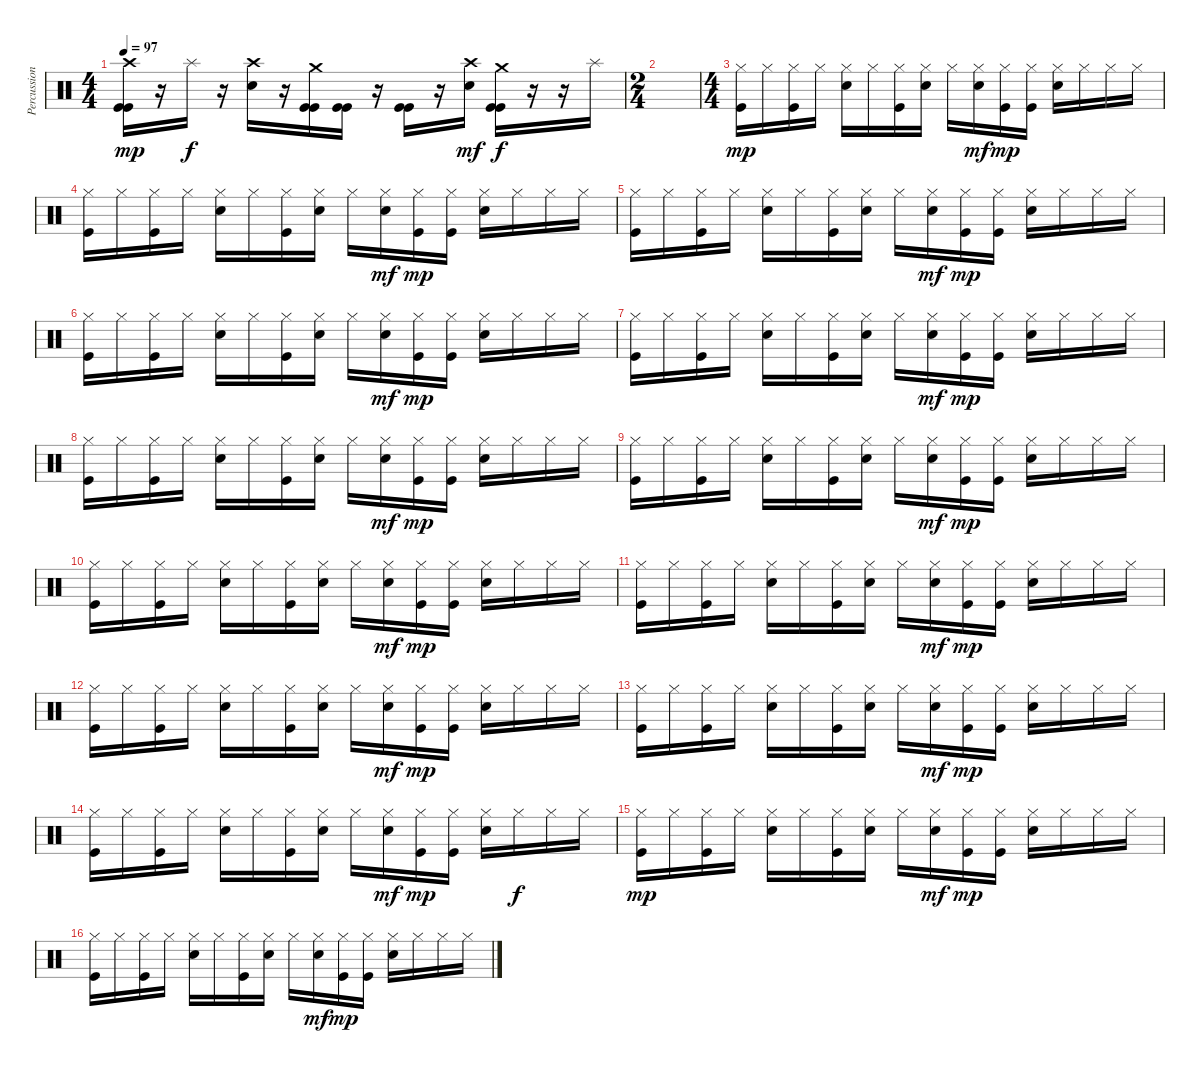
\track ("Percussions" "Percussion") {instrument percussion}
\staff {score}
\articulation defaults
\ts (4 4)
\tempo 97
\clef neutral
\ks c
("Crash high (hit)" "Kick (hit)" "Kick (hit)").16{dy mp} r.16 "Splash (hit)".16{dy f} r.16 ("Crash high (hit)" "Electric Snare (hit)").16 r.16 ("Crash medium (hit)" "Kick (hit)" "Kick (hit)").16 ("Kick (hit)" "Kick (hit)").16 r.16 ("Kick (hit)" "Kick (hit)").16 r.16 ("Crash high (hit)" "Electric Snare (hit)").16{dy mf} ("Crash medium (hit)" "Kick (hit)" "Kick (hit)").16{dy f} r.16 r.16 "Splash (hit)".16 |
\ts (2 4)
|
\ts (4 4)
("Hi-Hat (closed)" "Kick (hit)").16{dy mp} "Hi-Hat (closed)".16 ("Hi-Hat (closed)" "Kick (hit)").16 "Hi-Hat (closed)".16 ("Hi-Hat (closed)" "Electric Snare (hit)").16 "Hi-Hat (closed)".16 ("Hi-Hat (closed)" "Kick (hit)").16 ("Hi-Hat (closed)" "Electric Snare (hit)"{tr (40 64)}).16 "Hi-Hat (closed)".16 ("Hi-Hat (closed)" "Electric Snare (hit)").16{dy mf} ("Hi-Hat (closed)" "Kick (hit)").16{dy mp} ("Hi-Hat (closed)" "Kick (hit)").16 ("Hi-Hat (closed)" "Electric Snare (hit)").16 "Hi-Hat (closed)".16 "Hi-Hat (closed)".16 "Hi-Hat (closed)".16 |
("Hi-Hat (closed)" "Kick (hit)").16 "Hi-Hat (closed)".16 ("Hi-Hat (closed)" "Kick (hit)").16 "Hi-Hat (closed)".16 ("Hi-Hat (closed)" "Electric Snare (hit)").16 "Hi-Hat (closed)".16 ("Hi-Hat (closed)" "Kick (hit)").16 ("Hi-Hat (closed)" "Electric Snare (hit)"{tr (40 64)}).16 "Hi-Hat (closed)".16 ("Hi-Hat (closed)" "Electric Snare (hit)").16{dy mf} ("Hi-Hat (closed)" "Kick (hit)").16{dy mp} ("Hi-Hat (closed)" "Kick (hit)").16 ("Hi-Hat (closed)" "Electric Snare (hit)").16 "Hi-Hat (closed)".16 "Hi-Hat (closed)".16 "Hi-Hat (closed)".16 |
("Hi-Hat (closed)" "Kick (hit)").16 "Hi-Hat (closed)".16 ("Hi-Hat (closed)" "Kick (hit)").16 "Hi-Hat (closed)".16 ("Hi-Hat (closed)" "Electric Snare (hit)").16 "Hi-Hat (closed)".16 ("Hi-Hat (closed)" "Kick (hit)").16 ("Hi-Hat (closed)" "Electric Snare (hit)"{tr (40 64)}).16 "Hi-Hat (closed)".16 ("Hi-Hat (closed)" "Electric Snare (hit)").16{dy mf} ("Hi-Hat (closed)" "Kick (hit)").16{dy mp} ("Hi-Hat (closed)" "Kick (hit)").16 ("Hi-Hat (closed)" "Electric Snare (hit)").16 "Hi-Hat (closed)".16 "Hi-Hat (closed)".16 "Hi-Hat (closed)".16 |
("Hi-Hat (closed)" "Kick (hit)").16 "Hi-Hat (closed)".16 ("Hi-Hat (closed)" "Kick (hit)").16 "Hi-Hat (closed)".16 ("Hi-Hat (closed)" "Electric Snare (hit)").16 "Hi-Hat (closed)".16 ("Hi-Hat (closed)" "Kick (hit)").16 ("Hi-Hat (closed)" "Electric Snare (hit)"{tr (40 64)}).16 "Hi-Hat (closed)".16 ("Hi-Hat (closed)" "Electric Snare (hit)").16{dy mf} ("Hi-Hat (closed)" "Kick (hit)").16{dy mp} ("Hi-Hat (closed)" "Kick (hit)").16 ("Hi-Hat (closed)" "Electric Snare (hit)").16 "Hi-Hat (closed)".16 "Hi-Hat (closed)".16 "Hi-Hat (closed)".16 |
("Hi-Hat (closed)" "Kick (hit)").16 "Hi-Hat (closed)".16 ("Hi-Hat (closed)" "Kick (hit)").16 "Hi-Hat (closed)".16 ("Hi-Hat (closed)" "Electric Snare (hit)").16 "Hi-Hat (closed)".16 ("Hi-Hat (closed)" "Kick (hit)").16 ("Hi-Hat (closed)" "Electric Snare (hit)"{tr (40 64)}).16 "Hi-Hat (closed)".16 ("Hi-Hat (closed)" "Electric Snare (hit)").16{dy mf} ("Hi-Hat (closed)" "Kick (hit)").16{dy mp} ("Hi-Hat (closed)" "Kick (hit)").16 ("Hi-Hat (closed)" "Electric Snare (hit)").16 "Hi-Hat (closed)".16 "Hi-Hat (closed)".16 "Hi-Hat (closed)".16 |
("Hi-Hat (closed)" "Kick (hit)").16 "Hi-Hat (closed)".16 ("Hi-Hat (closed)" "Kick (hit)").16 "Hi-Hat (closed)".16 ("Hi-Hat (closed)" "Electric Snare (hit)").16 "Hi-Hat (closed)".16 ("Hi-Hat (closed)" "Kick (hit)").16 ("Hi-Hat (closed)" "Electric Snare (hit)"{tr (40 64)}).16 "Hi-Hat (closed)".16 ("Hi-Hat (closed)" "Electric Snare (hit)").16{dy mf} ("Hi-Hat (closed)" "Kick (hit)").16{dy mp} ("Hi-Hat (closed)" "Kick (hit)").16 ("Hi-Hat (closed)" "Electric Snare (hit)").16 "Hi-Hat (closed)".16 "Hi-Hat (closed)".16 "Hi-Hat (closed)".16 |
("Hi-Hat (closed)" "Kick (hit)").16 "Hi-Hat (closed)".16 ("Hi-Hat (closed)" "Kick (hit)").16 "Hi-Hat (closed)".16 ("Hi-Hat (closed)" "Electric Snare (hit)").16 "Hi-Hat (closed)".16 ("Hi-Hat (closed)" "Kick (hit)").16 ("Hi-Hat (closed)" "Electric Snare (hit)"{tr (40 64)}).16 "Hi-Hat (closed)".16 ("Hi-Hat (closed)" "Electric Snare (hit)").16{dy mf} ("Hi-Hat (closed)" "Kick (hit)").16{dy mp} ("Hi-Hat (closed)" "Kick (hit)").16 ("Hi-Hat (closed)" "Electric Snare (hit)").16 "Hi-Hat (closed)".16 "Hi-Hat (closed)".16 "Hi-Hat (closed)".16 |
("Hi-Hat (closed)" "Kick (hit)").16 "Hi-Hat (closed)".16 ("Hi-Hat (closed)" "Kick (hit)").16 "Hi-Hat (closed)".16 ("Hi-Hat (closed)" "Electric Snare (hit)").16 "Hi-Hat (closed)".16 ("Hi-Hat (closed)" "Kick (hit)").16 ("Hi-Hat (closed)" "Electric Snare (hit)"{tr (40 64)}).16 "Hi-Hat (closed)".16 ("Hi-Hat (closed)" "Electric Snare (hit)").16{dy mf} ("Hi-Hat (closed)" "Kick (hit)").16{dy mp} ("Hi-Hat (closed)" "Kick (hit)").16 ("Hi-Hat (closed)" "Electric Snare (hit)").16 "Hi-Hat (closed)".16 "Hi-Hat (closed)".16 "Hi-Hat (closed)".16 |
("Hi-Hat (closed)" "Kick (hit)").16 "Hi-Hat (closed)".16 ("Hi-Hat (closed)" "Kick (hit)").16 "Hi-Hat (closed)".16 ("Hi-Hat (closed)" "Electric Snare (hit)").16 "Hi-Hat (closed)".16 ("Hi-Hat (closed)" "Kick (hit)").16 ("Hi-Hat (closed)" "Electric Snare (hit)"{tr (40 64)}).16 "Hi-Hat (closed)".16 ("Hi-Hat (closed)" "Electric Snare (hit)").16{dy mf} ("Hi-Hat (closed)" "Kick (hit)").16{dy mp} ("Hi-Hat (closed)" "Kick (hit)").16 ("Hi-Hat (closed)" "Electric Snare (hit)").16 "Hi-Hat (closed)".16 "Hi-Hat (closed)".16 "Hi-Hat (closed)".16 |
("Hi-Hat (closed)" "Kick (hit)").16 "Hi-Hat (closed)".16 ("Hi-Hat (closed)" "Kick (hit)").16 "Hi-Hat (closed)".16 ("Hi-Hat (closed)" "Electric Snare (hit)").16 "Hi-Hat (closed)".16 ("Hi-Hat (closed)" "Kick (hit)").16 ("Hi-Hat (closed)" "Electric Snare (hit)"{tr (40 64)}).16 "Hi-Hat (closed)".16 ("Hi-Hat (closed)" "Electric Snare (hit)").16{dy mf} ("Hi-Hat (closed)" "Kick (hit)").16{dy mp} ("Hi-Hat (closed)" "Kick (hit)").16 ("Hi-Hat (closed)" "Electric Snare (hit)").16 "Hi-Hat (closed)".16 "Hi-Hat (closed)".16 "Hi-Hat (closed)".16 |
("Hi-Hat (closed)" "Kick (hit)").16 "Hi-Hat (closed)".16 ("Hi-Hat (closed)" "Kick (hit)").16 "Hi-Hat (closed)".16 ("Hi-Hat (closed)" "Electric Snare (hit)").16 "Hi-Hat (closed)".16 ("Hi-Hat (closed)" "Kick (hit)").16 ("Hi-Hat (closed)" "Electric Snare (hit)"{tr (40 64)}).16 "Hi-Hat (closed)".16 ("Hi-Hat (closed)" "Electric Snare (hit)").16{dy mf} ("Hi-Hat (closed)" "Kick (hit)").16{dy mp} ("Hi-Hat (closed)" "Kick (hit)").16 ("Hi-Hat (closed)" "Electric Snare (hit)").16 "Hi-Hat (closed)".16 "Hi-Hat (closed)".16 "Hi-Hat (closed)".16 |
("Hi-Hat (closed)" "Kick (hit)").16 "Hi-Hat (closed)".16 ("Hi-Hat (closed)" "Kick (hit)").16 "Hi-Hat (closed)".16 ("Hi-Hat (closed)" "Electric Snare (hit)").16 "Hi-Hat (closed)".16 ("Hi-Hat (closed)" "Kick (hit)").16 ("Hi-Hat (closed)" "Electric Snare (hit)"{tr (40 64)}).16 "Hi-Hat (closed)".16 ("Hi-Hat (closed)" "Electric Snare (hit)").16{dy mf} ("Hi-Hat (closed)" "Kick (hit)").16{dy mp} ("Hi-Hat (closed)" "Kick (hit)").16 ("Hi-Hat (closed)" "Electric Snare (hit)").16 "Hi-Hat (closed)".16{dy f} "Hi-Hat (closed)".16 "Hi-Hat (closed)".16 |
("Hi-Hat (closed)" "Kick (hit)").16{dy mp} "Hi-Hat (closed)".16 ("Hi-Hat (closed)" "Kick (hit)").16 "Hi-Hat (closed)".16 ("Hi-Hat (closed)" "Electric Snare (hit)").16 "Hi-Hat (closed)".16 ("Hi-Hat (closed)" "Kick (hit)").16 ("Hi-Hat (closed)" "Electric Snare (hit)"{tr (40 64)}).16 "Hi-Hat (closed)".16 ("Hi-Hat (closed)" "Electric Snare (hit)").16{dy mf} ("Hi-Hat (closed)" "Kick (hit)").16{dy mp} ("Hi-Hat (closed)" "Kick (hit)").16 ("Hi-Hat (closed)" "Electric Snare (hit)").16 "Hi-Hat (closed)".16 "Hi-Hat (closed)".16 "Hi-Hat (closed)".16 |
("Hi-Hat (closed)" "Kick (hit)").16 "Hi-Hat (closed)".16 ("Hi-Hat (closed)" "Kick (hit)").16 "Hi-Hat (closed)".16 ("Hi-Hat (closed)" "Electric Snare (hit)").16 "Hi-Hat (closed)".16 ("Hi-Hat (closed)" "Kick (hit)").16 ("Hi-Hat (closed)" "Electric Snare (hit)"{tr (40 64)}).16 "Hi-Hat (closed)".16 ("Hi-Hat (closed)" "Electric Snare (hit)").16{dy mf} ("Hi-Hat (closed)" "Kick (hit)").16{dy mp} ("Hi-Hat (closed)" "Kick (hit)").16 ("Hi-Hat (closed)" "Electric Snare (hit)").16 "Hi-Hat (closed)".16 "Hi-Hat (closed)".16 "Hi-Hat (closed)".16
